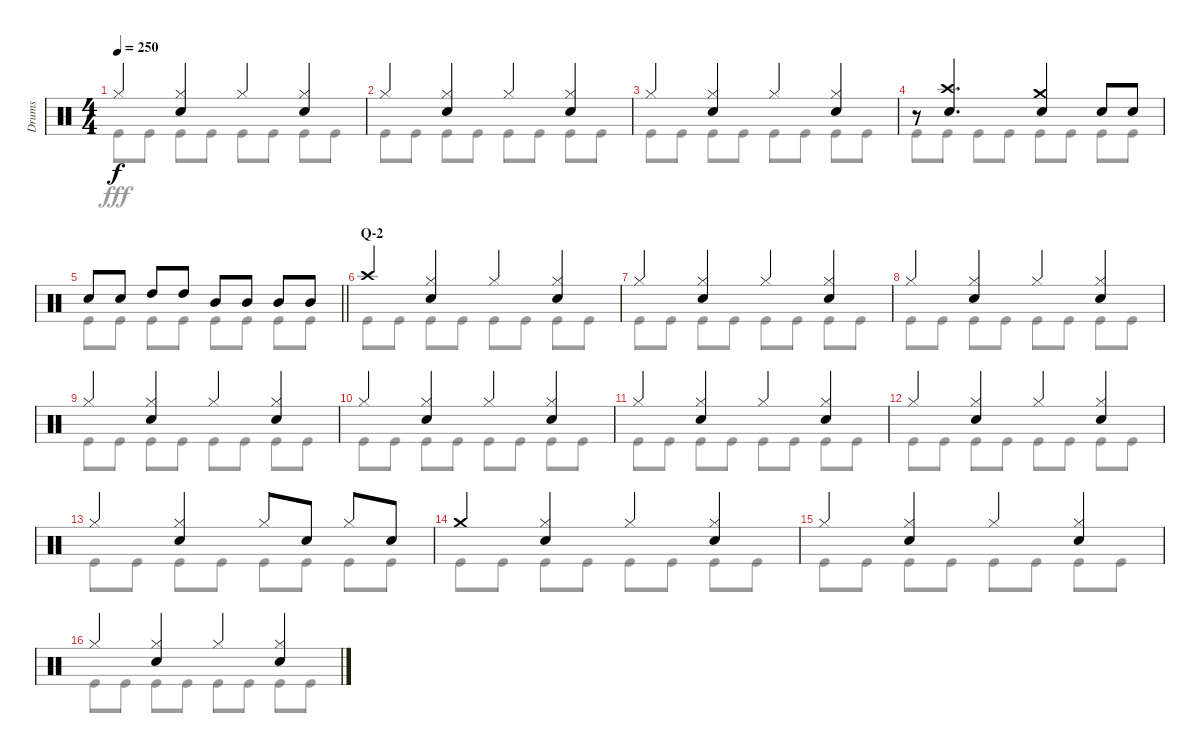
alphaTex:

\track ("Drums" "Drums") {instrument percussion}
\staff {score}
\articulation defaults
\voice
\ts (4 4)
\tempo 250
\clef neutral
\ks c "Hi-Hat (closed)".4{dy f}
("Hi-Hat (closed)" "Snare (hit) 2").4 "Hi-Hat (closed)".4 ("Hi-Hat (closed)" "Snare (hit) 2").4 |
"Hi-Hat (closed)".4 ("Hi-Hat (closed)" "Snare (hit) 2").4 "Hi-Hat (closed)".4 ("Hi-Hat (closed)" "Snare (hit) 2").4 |
"Hi-Hat (closed)".4 ("Hi-Hat (closed)" "Snare (hit) 2").4 "Hi-Hat (closed)".4 ("Hi-Hat (closed)" "Snare (hit) 2").4 |
r.8 ("Crash high (hit)" "Snare (hit) 2").4{d} ("Crash medium (hit)" "Snare (hit) 2").4 "Snare (hit) 2".8 "Snare (hit) 2".8 |
\barLineRight lightlight "Snare (hit) 2".8 "Snare (hit) 2".8 "High Tom (hit)".8 "High Tom (hit)".8 "Mid Tom (hit)".8 "Mid Tom (hit)".8 "Mid Tom (hit)".8 "Mid Tom (hit)".8
|
\section ("" "Q-2")
"Crash high (hit)".4 ("Hi-Hat (closed)" "Snare (hit) 2").4 "Hi-Hat (closed)".4 ("Hi-Hat (closed)" "Snare (hit) 2").4 |
"Hi-Hat (closed)".4 ("Hi-Hat (closed)" "Snare (hit) 2").4 "Hi-Hat (closed)".4 ("Hi-Hat (closed)" "Snare (hit) 2").4 |
"Hi-Hat (closed)".4 ("Hi-Hat (closed)" "Snare (hit) 2").4 "Hi-Hat (closed)".4 ("Hi-Hat (closed)" "Snare (hit) 2").4 |
"Hi-Hat (closed)".4 ("Hi-Hat (closed)" "Snare (hit) 2").4 "Hi-Hat (closed)".4 ("Hi-Hat (closed)" "Snare (hit) 2").4 |
"Hi-Hat (closed)".4 ("Hi-Hat (closed)" "Snare (hit) 2").4 "Hi-Hat (closed)".4 ("Hi-Hat (closed)" "Snare (hit) 2").4 |
"Hi-Hat (closed)".4 ("Hi-Hat (closed)" "Snare (hit) 2").4 "Hi-Hat (closed)".4 ("Hi-Hat (closed)" "Snare (hit) 2").4 |
"Hi-Hat (closed)".4 ("Hi-Hat (closed)" "Snare (hit) 2").4 "Hi-Hat (closed)".4 ("Hi-Hat (closed)" "Snare (hit) 2").4 |
"Hi-Hat (closed)".4 ("Hi-Hat (closed)" "Snare (hit) 2").4 "Hi-Hat (closed)".8 "Snare (hit) 2".8 "Hi-Hat (closed)".8 "Snare (hit) 2".8 |
"Crash medium (hit)".4 ("Hi-Hat (closed)" "Snare (hit) 2").4 "Hi-Hat (closed)".4 ("Hi-Hat (closed)" "Snare (hit) 2").4 |
"Hi-Hat (closed)".4 ("Hi-Hat (closed)" "Snare (hit) 2").4 "Hi-Hat (closed)".4 ("Hi-Hat (closed)" "Snare (hit) 2").4 |
"Hi-Hat (closed)".4 ("Hi-Hat (closed)" "Snare (hit) 2").4 "Hi-Hat (closed)".4 ("Hi-Hat (closed)" "Snare (hit) 2").4
\voice
\clef neutral
\ottava regular
\simile none
\ks c "Kick (hit)".8{dy fff} "Kick (hit)".8 "Kick (hit)".8 "Kick (hit)".8 "Kick (hit)".8 "Kick (hit)".8 "Kick (hit)".8 "Kick (hit)".8
|
"Kick (hit)".8 "Kick (hit)".8 "Kick (hit)".8 "Kick (hit)".8 "Kick (hit)".8 "Kick (hit)".8 "Kick (hit)".8 "Kick (hit)".8 |
"Kick (hit)".8 "Kick (hit)".8 "Kick (hit)".8 "Kick (hit)".8 "Kick (hit)".8 "Kick (hit)".8 "Kick (hit)".8 "Kick (hit)".8 |
"Kick (hit)".8 "Kick (hit)".8 "Kick (hit)".8 "Kick (hit)".8 "Kick (hit)".8 "Kick (hit)".8 "Kick (hit)".8 "Kick (hit)".8 |
\barLineRight lightlight "Kick (hit)".8 "Kick (hit)".8 "Kick (hit)".8 "Kick (hit)".8 "Kick (hit)".8 "Kick (hit)".8 "Kick (hit)".8 "Kick (hit)".8
|
"Kick (hit)".8 "Kick (hit)".8 "Kick (hit)".8 "Kick (hit)".8 "Kick (hit)".8 "Kick (hit)".8 "Kick (hit)".8 "Kick (hit)".8 |
"Kick (hit)".8 "Kick (hit)".8 "Kick (hit)".8 "Kick (hit)".8 "Kick (hit)".8 "Kick (hit)".8 "Kick (hit)".8 "Kick (hit)".8 |
"Kick (hit)".8 "Kick (hit)".8 "Kick (hit)".8 "Kick (hit)".8 "Kick (hit)".8 "Kick (hit)".8 "Kick (hit)".8 "Kick (hit)".8 |
"Kick (hit)".8 "Kick (hit)".8 "Kick (hit)".8 "Kick (hit)".8 "Kick (hit)".8 "Kick (hit)".8 "Kick (hit)".8 "Kick (hit)".8 |
"Kick (hit)".8 "Kick (hit)".8 "Kick (hit)".8 "Kick (hit)".8 "Kick (hit)".8 "Kick (hit)".8 "Kick (hit)".8 "Kick (hit)".8 |
"Kick (hit)".8 "Kick (hit)".8 "Kick (hit)".8 "Kick (hit)".8 "Kick (hit)".8 "Kick (hit)".8 "Kick (hit)".8 "Kick (hit)".8 |
"Kick (hit)".8 "Kick (hit)".8 "Kick (hit)".8 "Kick (hit)".8 "Kick (hit)".8 "Kick (hit)".8 "Kick (hit)".8 "Kick (hit)".8 |
"Kick (hit)".8 "Kick (hit)".8 "Kick (hit)".8 "Kick (hit)".8 "Kick (hit)".8 "Kick (hit)".8 "Kick (hit)".8 "Kick (hit)".8 |
"Kick (hit)".8 "Kick (hit)".8 "Kick (hit)".8 "Kick (hit)".8 "Kick (hit)".8 "Kick (hit)".8 "Kick (hit)".8 "Kick (hit)".8 |
"Kick (hit)".8 "Kick (hit)".8 "Kick (hit)".8 "Kick (hit)".8 "Kick (hit)".8 "Kick (hit)".8 "Kick (hit)".8 "Kick (hit)".8 |
"Kick (hit)".8 "Kick (hit)".8 "Kick (hit)".8 "Kick (hit)".8 "Kick (hit)".8 "Kick (hit)".8 "Kick (hit)".8 "Kick (hit)".8
